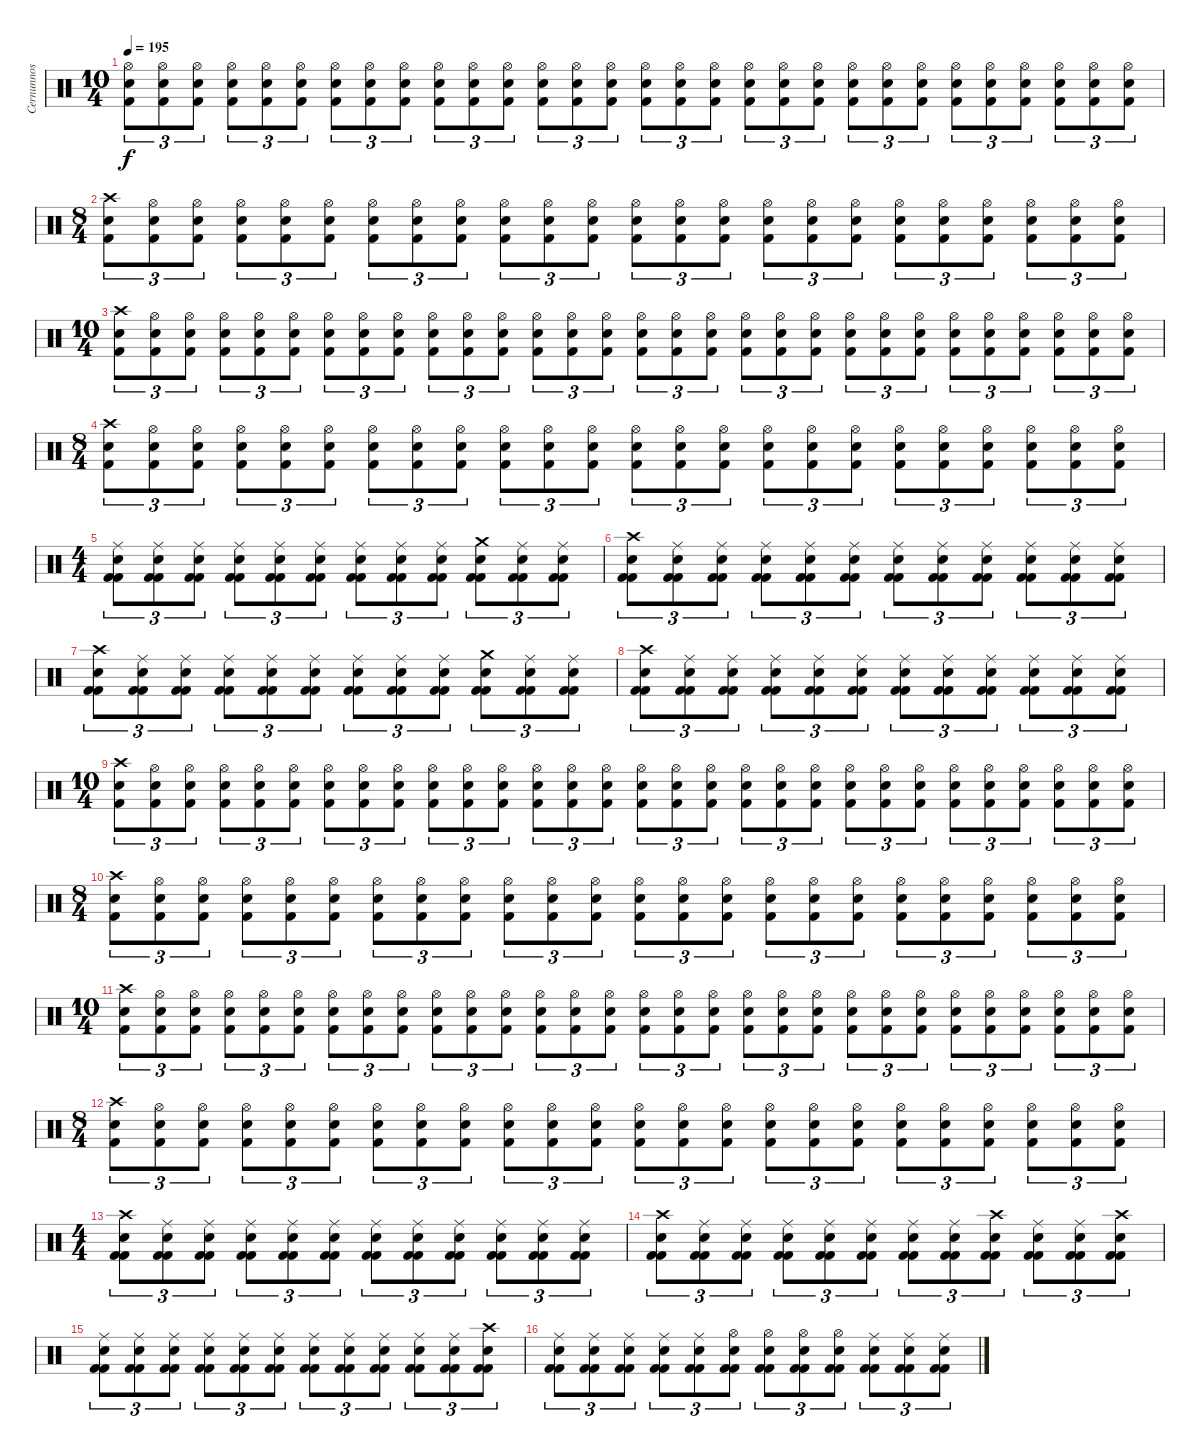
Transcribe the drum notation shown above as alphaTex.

\track ("Cernunnos (in memory)" "Cernunnos ") {instrument percussion}
\staff {score}
\articulation defaults
\ts (10 4)
\tempo 195
\clef neutral
\ks c
("Hi-Hat (open)" "Electric Snare (hit)" "Kick (hit) 2").8{tu (3 2) dy f} ("Hi-Hat (open)" "Electric Snare (hit)" "Kick (hit) 2").8{tu (3 2)} ("Hi-Hat (open)" "Electric Snare (hit)" "Kick (hit) 2").8{tu (3 2)} ("Hi-Hat (open)" "Electric Snare (hit)" "Kick (hit) 2").8{tu (3 2)} ("Hi-Hat (open)" "Electric Snare (hit)" "Kick (hit) 2").8{tu (3 2)} ("Hi-Hat (open)" "Electric Snare (hit)" "Kick (hit) 2").8{tu (3 2)} ("Hi-Hat (open)" "Electric Snare (hit)" "Kick (hit) 2").8{tu (3 2)} ("Hi-Hat (open)" "Electric Snare (hit)" "Kick (hit) 2").8{tu (3 2)} ("Hi-Hat (open)" "Electric Snare (hit)" "Kick (hit) 2").8{tu (3 2)} ("Hi-Hat (open)" "Electric Snare (hit)" "Kick (hit) 2").8{tu (3 2)} ("Hi-Hat (open)" "Electric Snare (hit)" "Kick (hit) 2").8{tu (3 2)} ("Hi-Hat (open)" "Electric Snare (hit)" "Kick (hit) 2").8{tu (3 2)} ("Hi-Hat (open)" "Electric Snare (hit)" "Kick (hit) 2").8{tu (3 2)} ("Hi-Hat (open)" "Electric Snare (hit)" "Kick (hit) 2").8{tu (3 2)} ("Hi-Hat (open)" "Electric Snare (hit)" "Kick (hit) 2").8{tu (3 2)} ("Hi-Hat (open)" "Electric Snare (hit)" "Kick (hit) 2").8{tu (3 2)} ("Hi-Hat (open)" "Electric Snare (hit)" "Kick (hit) 2").8{tu (3 2)} ("Hi-Hat (open)" "Electric Snare (hit)" "Kick (hit) 2").8{tu (3 2)} ("Hi-Hat (open)" "Electric Snare (hit)" "Kick (hit) 2").8{tu (3 2)} ("Hi-Hat (open)" "Electric Snare (hit)" "Kick (hit) 2").8{tu (3 2)} ("Hi-Hat (open)" "Electric Snare (hit)" "Kick (hit) 2").8{tu (3 2)} ("Hi-Hat (open)" "Electric Snare (hit)" "Kick (hit) 2").8{tu (3 2)} ("Hi-Hat (open)" "Electric Snare (hit)" "Kick (hit) 2").8{tu (3 2)} ("Hi-Hat (open)" "Electric Snare (hit)" "Kick (hit) 2").8{tu (3 2)} ("Hi-Hat (open)" "Electric Snare (hit)" "Kick (hit) 2").8{tu (3 2)} ("Hi-Hat (open)" "Electric Snare (hit)" "Kick (hit) 2").8{tu (3 2)} ("Hi-Hat (open)" "Electric Snare (hit)" "Kick (hit) 2").8{tu (3 2)} ("Hi-Hat (open)" "Electric Snare (hit)" "Kick (hit) 2").8{tu (3 2)} ("Hi-Hat (open)" "Electric Snare (hit)" "Kick (hit) 2").8{tu (3 2)} ("Hi-Hat (open)" "Electric Snare (hit)" "Kick (hit) 2").8{tu (3 2)} |
\ts (8 4)
("Crash high (hit)" "Electric Snare (hit)" "Kick (hit) 2").8{tu (3 2)} ("Hi-Hat (open)" "Electric Snare (hit)" "Kick (hit) 2").8{tu (3 2)} ("Hi-Hat (open)" "Electric Snare (hit)" "Kick (hit) 2").8{tu (3 2)} ("Hi-Hat (open)" "Electric Snare (hit)" "Kick (hit) 2").8{tu (3 2)} ("Hi-Hat (open)" "Electric Snare (hit)" "Kick (hit) 2").8{tu (3 2)} ("Hi-Hat (open)" "Electric Snare (hit)" "Kick (hit) 2").8{tu (3 2)} ("Hi-Hat (open)" "Electric Snare (hit)" "Kick (hit) 2").8{tu (3 2)} ("Hi-Hat (open)" "Electric Snare (hit)" "Kick (hit) 2").8{tu (3 2)} ("Hi-Hat (open)" "Electric Snare (hit)" "Kick (hit) 2").8{tu (3 2)} ("Hi-Hat (open)" "Electric Snare (hit)" "Kick (hit) 2").8{tu (3 2)} ("Hi-Hat (open)" "Electric Snare (hit)" "Kick (hit) 2").8{tu (3 2)} ("Hi-Hat (open)" "Electric Snare (hit)" "Kick (hit) 2").8{tu (3 2)} ("Hi-Hat (open)" "Electric Snare (hit)" "Kick (hit) 2").8{tu (3 2)} ("Hi-Hat (open)" "Electric Snare (hit)" "Kick (hit) 2").8{tu (3 2)} ("Hi-Hat (open)" "Electric Snare (hit)" "Kick (hit) 2").8{tu (3 2)} ("Hi-Hat (open)" "Electric Snare (hit)" "Kick (hit) 2").8{tu (3 2)} ("Hi-Hat (open)" "Electric Snare (hit)" "Kick (hit) 2").8{tu (3 2)} ("Hi-Hat (open)" "Electric Snare (hit)" "Kick (hit) 2").8{tu (3 2)} ("Hi-Hat (open)" "Electric Snare (hit)" "Kick (hit) 2").8{tu (3 2)} ("Hi-Hat (open)" "Electric Snare (hit)" "Kick (hit) 2").8{tu (3 2)} ("Hi-Hat (open)" "Electric Snare (hit)" "Kick (hit) 2").8{tu (3 2)} ("Hi-Hat (open)" "Electric Snare (hit)" "Kick (hit) 2").8{tu (3 2)} ("Hi-Hat (open)" "Electric Snare (hit)" "Kick (hit) 2").8{tu (3 2)} ("Hi-Hat (open)" "Electric Snare (hit)" "Kick (hit) 2").8{tu (3 2)} |
\ts (10 4)
("Crash high (hit)" "Electric Snare (hit)" "Kick (hit) 2").8{tu (3 2)} ("Hi-Hat (open)" "Electric Snare (hit)" "Kick (hit) 2").8{tu (3 2)} ("Hi-Hat (open)" "Electric Snare (hit)" "Kick (hit) 2").8{tu (3 2)} ("Hi-Hat (open)" "Electric Snare (hit)" "Kick (hit) 2").8{tu (3 2)} ("Hi-Hat (open)" "Electric Snare (hit)" "Kick (hit) 2").8{tu (3 2)} ("Hi-Hat (open)" "Electric Snare (hit)" "Kick (hit) 2").8{tu (3 2)} ("Hi-Hat (open)" "Electric Snare (hit)" "Kick (hit) 2").8{tu (3 2)} ("Hi-Hat (open)" "Electric Snare (hit)" "Kick (hit) 2").8{tu (3 2)} ("Hi-Hat (open)" "Electric Snare (hit)" "Kick (hit) 2").8{tu (3 2)} ("Hi-Hat (open)" "Electric Snare (hit)" "Kick (hit) 2").8{tu (3 2)} ("Hi-Hat (open)" "Electric Snare (hit)" "Kick (hit) 2").8{tu (3 2)} ("Hi-Hat (open)" "Electric Snare (hit)" "Kick (hit) 2").8{tu (3 2)} ("Hi-Hat (open)" "Electric Snare (hit)" "Kick (hit) 2").8{tu (3 2)} ("Hi-Hat (open)" "Electric Snare (hit)" "Kick (hit) 2").8{tu (3 2)} ("Hi-Hat (open)" "Electric Snare (hit)" "Kick (hit) 2").8{tu (3 2)} ("Hi-Hat (open)" "Electric Snare (hit)" "Kick (hit) 2").8{tu (3 2)} ("Hi-Hat (open)" "Electric Snare (hit)" "Kick (hit) 2").8{tu (3 2)} ("Hi-Hat (open)" "Electric Snare (hit)" "Kick (hit) 2").8{tu (3 2)} ("Hi-Hat (open)" "Electric Snare (hit)" "Kick (hit) 2").8{tu (3 2)} ("Hi-Hat (open)" "Electric Snare (hit)" "Kick (hit) 2").8{tu (3 2)} ("Hi-Hat (open)" "Electric Snare (hit)" "Kick (hit) 2").8{tu (3 2)} ("Hi-Hat (open)" "Electric Snare (hit)" "Kick (hit) 2").8{tu (3 2)} ("Hi-Hat (open)" "Electric Snare (hit)" "Kick (hit) 2").8{tu (3 2)} ("Hi-Hat (open)" "Electric Snare (hit)" "Kick (hit) 2").8{tu (3 2)} ("Hi-Hat (open)" "Electric Snare (hit)" "Kick (hit) 2").8{tu (3 2)} ("Hi-Hat (open)" "Electric Snare (hit)" "Kick (hit) 2").8{tu (3 2)} ("Hi-Hat (open)" "Electric Snare (hit)" "Kick (hit) 2").8{tu (3 2)} ("Hi-Hat (open)" "Electric Snare (hit)" "Kick (hit) 2").8{tu (3 2)} ("Hi-Hat (open)" "Electric Snare (hit)" "Kick (hit) 2").8{tu (3 2)} ("Hi-Hat (open)" "Electric Snare (hit)" "Kick (hit) 2").8{tu (3 2)} |
\ts (8 4)
("Crash high (hit)" "Electric Snare (hit)" "Kick (hit) 2").8{tu (3 2)} ("Hi-Hat (open)" "Electric Snare (hit)" "Kick (hit) 2").8{tu (3 2)} ("Hi-Hat (open)" "Electric Snare (hit)" "Kick (hit) 2").8{tu (3 2)} ("Hi-Hat (open)" "Electric Snare (hit)" "Kick (hit) 2").8{tu (3 2)} ("Hi-Hat (open)" "Electric Snare (hit)" "Kick (hit) 2").8{tu (3 2)} ("Hi-Hat (open)" "Electric Snare (hit)" "Kick (hit) 2").8{tu (3 2)} ("Hi-Hat (open)" "Electric Snare (hit)" "Kick (hit) 2").8{tu (3 2)} ("Hi-Hat (open)" "Electric Snare (hit)" "Kick (hit) 2").8{tu (3 2)} ("Hi-Hat (open)" "Electric Snare (hit)" "Kick (hit) 2").8{tu (3 2)} ("Hi-Hat (open)" "Electric Snare (hit)" "Kick (hit) 2").8{tu (3 2)} ("Hi-Hat (open)" "Electric Snare (hit)" "Kick (hit) 2").8{tu (3 2)} ("Hi-Hat (open)" "Electric Snare (hit)" "Kick (hit) 2").8{tu (3 2)} ("Hi-Hat (open)" "Electric Snare (hit)" "Kick (hit) 2").8{tu (3 2)} ("Hi-Hat (open)" "Electric Snare (hit)" "Kick (hit) 2").8{tu (3 2)} ("Hi-Hat (open)" "Electric Snare (hit)" "Kick (hit) 2").8{tu (3 2)} ("Hi-Hat (open)" "Electric Snare (hit)" "Kick (hit) 2").8{tu (3 2)} ("Hi-Hat (open)" "Electric Snare (hit)" "Kick (hit) 2").8{tu (3 2)} ("Hi-Hat (open)" "Electric Snare (hit)" "Kick (hit) 2").8{tu (3 2)} ("Hi-Hat (open)" "Electric Snare (hit)" "Kick (hit) 2").8{tu (3 2)} ("Hi-Hat (open)" "Electric Snare (hit)" "Kick (hit) 2").8{tu (3 2)} ("Hi-Hat (open)" "Electric Snare (hit)" "Kick (hit) 2").8{tu (3 2)} ("Hi-Hat (open)" "Electric Snare (hit)" "Kick (hit) 2").8{tu (3 2)} ("Hi-Hat (open)" "Electric Snare (hit)" "Kick (hit) 2").8{tu (3 2)} ("Hi-Hat (open)" "Electric Snare (hit)" "Kick (hit) 2").8{tu (3 2)} |
\ts (4 4)
("Ride (middle)" "Electric Snare (hit)" "Kick (hit) 2" "Kick (hit) 2").8{tu (3 2)} ("Ride (middle)" "Electric Snare (hit)" "Kick (hit) 2" "Kick (hit) 2").8{tu (3 2)} ("Ride (middle)" "Electric Snare (hit)" "Kick (hit) 2" "Kick (hit) 2").8{tu (3 2)} ("Ride (middle)" "Electric Snare (hit)" "Kick (hit) 2" "Kick (hit) 2").8{tu (3 2)} ("Ride (middle)" "Electric Snare (hit)" "Kick (hit) 2" "Kick (hit) 2").8{tu (3 2)} ("Ride (middle)" "Electric Snare (hit)" "Kick (hit) 2" "Kick (hit) 2").8{tu (3 2)} ("Ride (middle)" "Electric Snare (hit)" "Kick (hit) 2" "Kick (hit) 2").8{tu (3 2)} ("Ride (middle)" "Electric Snare (hit)" "Kick (hit) 2" "Kick (hit) 2").8{tu (3 2)} ("Ride (middle)" "Electric Snare (hit)" "Kick (hit) 2" "Kick (hit) 2").8{tu (3 2)} ("Crash medium (hit)" "Electric Snare (hit)" "Kick (hit) 2" "Kick (hit) 2").8{tu (3 2)} ("Ride (middle)" "Electric Snare (hit)" "Kick (hit) 2" "Kick (hit) 2").8{tu (3 2)} ("Ride (middle)" "Electric Snare (hit)" "Kick (hit) 2" "Kick (hit) 2").8{tu (3 2)} |
("Crash high (hit)" "Electric Snare (hit)" "Kick (hit) 2" "Kick (hit) 2").8{tu (3 2)} ("Ride (middle)" "Electric Snare (hit)" "Kick (hit) 2" "Kick (hit) 2").8{tu (3 2)} ("Ride (middle)" "Electric Snare (hit)" "Kick (hit) 2" "Kick (hit) 2").8{tu (3 2)} ("Ride (middle)" "Electric Snare (hit)" "Kick (hit) 2" "Kick (hit) 2").8{tu (3 2)} ("Ride (middle)" "Electric Snare (hit)" "Kick (hit) 2" "Kick (hit) 2").8{tu (3 2)} ("Ride (middle)" "Electric Snare (hit)" "Kick (hit) 2" "Kick (hit) 2").8{tu (3 2)} ("Ride (middle)" "Electric Snare (hit)" "Kick (hit) 2" "Kick (hit) 2").8{tu (3 2)} ("Ride (middle)" "Electric Snare (hit)" "Kick (hit) 2" "Kick (hit) 2").8{tu (3 2)} ("Ride (middle)" "Electric Snare (hit)" "Kick (hit) 2" "Kick (hit) 2").8{tu (3 2)} ("Ride (middle)" "Electric Snare (hit)" "Kick (hit) 2" "Kick (hit) 2").8{tu (3 2)} ("Ride (middle)" "Electric Snare (hit)" "Kick (hit) 2" "Kick (hit) 2").8{tu (3 2)} ("Ride (middle)" "Electric Snare (hit)" "Kick (hit) 2" "Kick (hit) 2").8{tu (3 2)} |
("Crash high (hit)" "Electric Snare (hit)" "Kick (hit) 2" "Kick (hit) 2").8{tu (3 2)} ("Ride (middle)" "Electric Snare (hit)" "Kick (hit) 2" "Kick (hit) 2").8{tu (3 2)} ("Ride (middle)" "Electric Snare (hit)" "Kick (hit) 2" "Kick (hit) 2").8{tu (3 2)} ("Ride (middle)" "Electric Snare (hit)" "Kick (hit) 2" "Kick (hit) 2").8{tu (3 2)} ("Ride (middle)" "Electric Snare (hit)" "Kick (hit) 2" "Kick (hit) 2").8{tu (3 2)} ("Ride (middle)" "Electric Snare (hit)" "Kick (hit) 2" "Kick (hit) 2").8{tu (3 2)} ("Ride (middle)" "Electric Snare (hit)" "Kick (hit) 2" "Kick (hit) 2").8{tu (3 2)} ("Ride (middle)" "Electric Snare (hit)" "Kick (hit) 2" "Kick (hit) 2").8{tu (3 2)} ("Ride (middle)" "Electric Snare (hit)" "Kick (hit) 2" "Kick (hit) 2").8{tu (3 2)} ("Crash medium (hit)" "Electric Snare (hit)" "Kick (hit) 2" "Kick (hit) 2").8{tu (3 2)} ("Ride (middle)" "Electric Snare (hit)" "Kick (hit) 2" "Kick (hit) 2").8{tu (3 2)} ("Ride (middle)" "Electric Snare (hit)" "Kick (hit) 2" "Kick (hit) 2").8{tu (3 2)} |
("Crash high (hit)" "Electric Snare (hit)" "Kick (hit) 2" "Kick (hit) 2").8{tu (3 2)} ("Ride (middle)" "Electric Snare (hit)" "Kick (hit) 2" "Kick (hit) 2").8{tu (3 2)} ("Ride (middle)" "Electric Snare (hit)" "Kick (hit) 2" "Kick (hit) 2").8{tu (3 2)} ("Ride (middle)" "Electric Snare (hit)" "Kick (hit) 2" "Kick (hit) 2").8{tu (3 2)} ("Ride (middle)" "Electric Snare (hit)" "Kick (hit) 2" "Kick (hit) 2").8{tu (3 2)} ("Ride (middle)" "Electric Snare (hit)" "Kick (hit) 2" "Kick (hit) 2").8{tu (3 2)} ("Ride (middle)" "Electric Snare (hit)" "Kick (hit) 2" "Kick (hit) 2").8{tu (3 2)} ("Ride (middle)" "Electric Snare (hit)" "Kick (hit) 2" "Kick (hit) 2").8{tu (3 2)} ("Ride (middle)" "Electric Snare (hit)" "Kick (hit) 2" "Kick (hit) 2").8{tu (3 2)} ("Ride (middle)" "Electric Snare (hit)" "Kick (hit) 2" "Kick (hit) 2").8{tu (3 2)} ("Ride (middle)" "Electric Snare (hit)" "Kick (hit) 2" "Kick (hit) 2").8{tu (3 2)} ("Ride (middle)" "Electric Snare (hit)" "Kick (hit) 2" "Kick (hit) 2").8{tu (3 2)} |
\ts (10 4)
("Crash high (hit)" "Electric Snare (hit)" "Kick (hit) 2").8{tu (3 2)} ("Hi-Hat (open)" "Electric Snare (hit)" "Kick (hit) 2").8{tu (3 2)} ("Hi-Hat (open)" "Electric Snare (hit)" "Kick (hit) 2").8{tu (3 2)} ("Hi-Hat (open)" "Electric Snare (hit)" "Kick (hit) 2").8{tu (3 2)} ("Hi-Hat (open)" "Electric Snare (hit)" "Kick (hit) 2").8{tu (3 2)} ("Hi-Hat (open)" "Electric Snare (hit)" "Kick (hit) 2").8{tu (3 2)} ("Hi-Hat (open)" "Electric Snare (hit)" "Kick (hit) 2").8{tu (3 2)} ("Hi-Hat (open)" "Electric Snare (hit)" "Kick (hit) 2").8{tu (3 2)} ("Hi-Hat (open)" "Electric Snare (hit)" "Kick (hit) 2").8{tu (3 2)} ("Hi-Hat (open)" "Electric Snare (hit)" "Kick (hit) 2").8{tu (3 2)} ("Hi-Hat (open)" "Electric Snare (hit)" "Kick (hit) 2").8{tu (3 2)} ("Hi-Hat (open)" "Electric Snare (hit)" "Kick (hit) 2").8{tu (3 2)} ("Hi-Hat (open)" "Electric Snare (hit)" "Kick (hit) 2").8{tu (3 2)} ("Hi-Hat (open)" "Electric Snare (hit)" "Kick (hit) 2").8{tu (3 2)} ("Hi-Hat (open)" "Electric Snare (hit)" "Kick (hit) 2").8{tu (3 2)} ("Hi-Hat (open)" "Electric Snare (hit)" "Kick (hit) 2").8{tu (3 2)} ("Hi-Hat (open)" "Electric Snare (hit)" "Kick (hit) 2").8{tu (3 2)} ("Hi-Hat (open)" "Electric Snare (hit)" "Kick (hit) 2").8{tu (3 2)} ("Hi-Hat (open)" "Electric Snare (hit)" "Kick (hit) 2").8{tu (3 2)} ("Hi-Hat (open)" "Electric Snare (hit)" "Kick (hit) 2").8{tu (3 2)} ("Hi-Hat (open)" "Electric Snare (hit)" "Kick (hit) 2").8{tu (3 2)} ("Hi-Hat (open)" "Electric Snare (hit)" "Kick (hit) 2").8{tu (3 2)} ("Hi-Hat (open)" "Electric Snare (hit)" "Kick (hit) 2").8{tu (3 2)} ("Hi-Hat (open)" "Electric Snare (hit)" "Kick (hit) 2").8{tu (3 2)} ("Hi-Hat (open)" "Electric Snare (hit)" "Kick (hit) 2").8{tu (3 2)} ("Hi-Hat (open)" "Electric Snare (hit)" "Kick (hit) 2").8{tu (3 2)} ("Hi-Hat (open)" "Electric Snare (hit)" "Kick (hit) 2").8{tu (3 2)} ("Hi-Hat (open)" "Electric Snare (hit)" "Kick (hit) 2").8{tu (3 2)} ("Hi-Hat (open)" "Electric Snare (hit)" "Kick (hit) 2").8{tu (3 2)} ("Hi-Hat (open)" "Electric Snare (hit)" "Kick (hit) 2").8{tu (3 2)} |
\ts (8 4)
("Crash high (hit)" "Electric Snare (hit)" "Kick (hit) 2").8{tu (3 2)} ("Hi-Hat (open)" "Electric Snare (hit)" "Kick (hit) 2").8{tu (3 2)} ("Hi-Hat (open)" "Electric Snare (hit)" "Kick (hit) 2").8{tu (3 2)} ("Hi-Hat (open)" "Electric Snare (hit)" "Kick (hit) 2").8{tu (3 2)} ("Hi-Hat (open)" "Electric Snare (hit)" "Kick (hit) 2").8{tu (3 2)} ("Hi-Hat (open)" "Electric Snare (hit)" "Kick (hit) 2").8{tu (3 2)} ("Hi-Hat (open)" "Electric Snare (hit)" "Kick (hit) 2").8{tu (3 2)} ("Hi-Hat (open)" "Electric Snare (hit)" "Kick (hit) 2").8{tu (3 2)} ("Hi-Hat (open)" "Electric Snare (hit)" "Kick (hit) 2").8{tu (3 2)} ("Hi-Hat (open)" "Electric Snare (hit)" "Kick (hit) 2").8{tu (3 2)} ("Hi-Hat (open)" "Electric Snare (hit)" "Kick (hit) 2").8{tu (3 2)} ("Hi-Hat (open)" "Electric Snare (hit)" "Kick (hit) 2").8{tu (3 2)} ("Hi-Hat (open)" "Electric Snare (hit)" "Kick (hit) 2").8{tu (3 2)} ("Hi-Hat (open)" "Electric Snare (hit)" "Kick (hit) 2").8{tu (3 2)} ("Hi-Hat (open)" "Electric Snare (hit)" "Kick (hit) 2").8{tu (3 2)} ("Hi-Hat (open)" "Electric Snare (hit)" "Kick (hit) 2").8{tu (3 2)} ("Hi-Hat (open)" "Electric Snare (hit)" "Kick (hit) 2").8{tu (3 2)} ("Hi-Hat (open)" "Electric Snare (hit)" "Kick (hit) 2").8{tu (3 2)} ("Hi-Hat (open)" "Electric Snare (hit)" "Kick (hit) 2").8{tu (3 2)} ("Hi-Hat (open)" "Electric Snare (hit)" "Kick (hit) 2").8{tu (3 2)} ("Hi-Hat (open)" "Electric Snare (hit)" "Kick (hit) 2").8{tu (3 2)} ("Hi-Hat (open)" "Electric Snare (hit)" "Kick (hit) 2").8{tu (3 2)} ("Hi-Hat (open)" "Electric Snare (hit)" "Kick (hit) 2").8{tu (3 2)} ("Hi-Hat (open)" "Electric Snare (hit)" "Kick (hit) 2").8{tu (3 2)} |
\ts (10 4)
("Crash high (hit)" "Electric Snare (hit)" "Kick (hit) 2").8{tu (3 2)} ("Hi-Hat (open)" "Electric Snare (hit)" "Kick (hit) 2").8{tu (3 2)} ("Hi-Hat (open)" "Electric Snare (hit)" "Kick (hit) 2").8{tu (3 2)} ("Hi-Hat (open)" "Electric Snare (hit)" "Kick (hit) 2").8{tu (3 2)} ("Hi-Hat (open)" "Electric Snare (hit)" "Kick (hit) 2").8{tu (3 2)} ("Hi-Hat (open)" "Electric Snare (hit)" "Kick (hit) 2").8{tu (3 2)} ("Hi-Hat (open)" "Electric Snare (hit)" "Kick (hit) 2").8{tu (3 2)} ("Hi-Hat (open)" "Electric Snare (hit)" "Kick (hit) 2").8{tu (3 2)} ("Hi-Hat (open)" "Electric Snare (hit)" "Kick (hit) 2").8{tu (3 2)} ("Hi-Hat (open)" "Electric Snare (hit)" "Kick (hit) 2").8{tu (3 2)} ("Hi-Hat (open)" "Electric Snare (hit)" "Kick (hit) 2").8{tu (3 2)} ("Hi-Hat (open)" "Electric Snare (hit)" "Kick (hit) 2").8{tu (3 2)} ("Hi-Hat (open)" "Electric Snare (hit)" "Kick (hit) 2").8{tu (3 2)} ("Hi-Hat (open)" "Electric Snare (hit)" "Kick (hit) 2").8{tu (3 2)} ("Hi-Hat (open)" "Electric Snare (hit)" "Kick (hit) 2").8{tu (3 2)} ("Hi-Hat (open)" "Electric Snare (hit)" "Kick (hit) 2").8{tu (3 2)} ("Hi-Hat (open)" "Electric Snare (hit)" "Kick (hit) 2").8{tu (3 2)} ("Hi-Hat (open)" "Electric Snare (hit)" "Kick (hit) 2").8{tu (3 2)} ("Hi-Hat (open)" "Electric Snare (hit)" "Kick (hit) 2").8{tu (3 2)} ("Hi-Hat (open)" "Electric Snare (hit)" "Kick (hit) 2").8{tu (3 2)} ("Hi-Hat (open)" "Electric Snare (hit)" "Kick (hit) 2").8{tu (3 2)} ("Hi-Hat (open)" "Electric Snare (hit)" "Kick (hit) 2").8{tu (3 2)} ("Hi-Hat (open)" "Electric Snare (hit)" "Kick (hit) 2").8{tu (3 2)} ("Hi-Hat (open)" "Electric Snare (hit)" "Kick (hit) 2").8{tu (3 2)} ("Hi-Hat (open)" "Electric Snare (hit)" "Kick (hit) 2").8{tu (3 2)} ("Hi-Hat (open)" "Electric Snare (hit)" "Kick (hit) 2").8{tu (3 2)} ("Hi-Hat (open)" "Electric Snare (hit)" "Kick (hit) 2").8{tu (3 2)} ("Hi-Hat (open)" "Electric Snare (hit)" "Kick (hit) 2").8{tu (3 2)} ("Hi-Hat (open)" "Electric Snare (hit)" "Kick (hit) 2").8{tu (3 2)} ("Hi-Hat (open)" "Electric Snare (hit)" "Kick (hit) 2").8{tu (3 2)} |
\ts (8 4)
("Crash high (hit)" "Electric Snare (hit)" "Kick (hit) 2").8{tu (3 2)} ("Hi-Hat (open)" "Electric Snare (hit)" "Kick (hit) 2").8{tu (3 2)} ("Hi-Hat (open)" "Electric Snare (hit)" "Kick (hit) 2").8{tu (3 2)} ("Hi-Hat (open)" "Electric Snare (hit)" "Kick (hit) 2").8{tu (3 2)} ("Hi-Hat (open)" "Electric Snare (hit)" "Kick (hit) 2").8{tu (3 2)} ("Hi-Hat (open)" "Electric Snare (hit)" "Kick (hit) 2").8{tu (3 2)} ("Hi-Hat (open)" "Electric Snare (hit)" "Kick (hit) 2").8{tu (3 2)} ("Hi-Hat (open)" "Electric Snare (hit)" "Kick (hit) 2").8{tu (3 2)} ("Hi-Hat (open)" "Electric Snare (hit)" "Kick (hit) 2").8{tu (3 2)} ("Hi-Hat (open)" "Electric Snare (hit)" "Kick (hit) 2").8{tu (3 2)} ("Hi-Hat (open)" "Electric Snare (hit)" "Kick (hit) 2").8{tu (3 2)} ("Hi-Hat (open)" "Electric Snare (hit)" "Kick (hit) 2").8{tu (3 2)} ("Hi-Hat (open)" "Electric Snare (hit)" "Kick (hit) 2").8{tu (3 2)} ("Hi-Hat (open)" "Electric Snare (hit)" "Kick (hit) 2").8{tu (3 2)} ("Hi-Hat (open)" "Electric Snare (hit)" "Kick (hit) 2").8{tu (3 2)} ("Hi-Hat (open)" "Electric Snare (hit)" "Kick (hit) 2").8{tu (3 2)} ("Hi-Hat (open)" "Electric Snare (hit)" "Kick (hit) 2").8{tu (3 2)} ("Hi-Hat (open)" "Electric Snare (hit)" "Kick (hit) 2").8{tu (3 2)} ("Hi-Hat (open)" "Electric Snare (hit)" "Kick (hit) 2").8{tu (3 2)} ("Hi-Hat (open)" "Electric Snare (hit)" "Kick (hit) 2").8{tu (3 2)} ("Hi-Hat (open)" "Electric Snare (hit)" "Kick (hit) 2").8{tu (3 2)} ("Hi-Hat (open)" "Electric Snare (hit)" "Kick (hit) 2").8{tu (3 2)} ("Hi-Hat (open)" "Electric Snare (hit)" "Kick (hit) 2").8{tu (3 2)} ("Hi-Hat (open)" "Electric Snare (hit)" "Kick (hit) 2").8{tu (3 2)} |
\ts (4 4)
("Crash high (hit)" "Electric Snare (hit)" "Kick (hit) 2" "Kick (hit) 2").8{tu (3 2)} ("Ride (middle)" "Electric Snare (hit)" "Kick (hit) 2" "Kick (hit) 2").8{tu (3 2)} ("Ride (middle)" "Electric Snare (hit)" "Kick (hit) 2" "Kick (hit) 2").8{tu (3 2)} ("Ride (middle)" "Electric Snare (hit)" "Kick (hit) 2" "Kick (hit) 2").8{tu (3 2)} ("Ride (middle)" "Electric Snare (hit)" "Kick (hit) 2" "Kick (hit) 2").8{tu (3 2)} ("Ride (middle)" "Electric Snare (hit)" "Kick (hit) 2" "Kick (hit) 2").8{tu (3 2)} ("Ride (middle)" "Electric Snare (hit)" "Kick (hit) 2" "Kick (hit) 2").8{tu (3 2)} ("Ride (middle)" "Electric Snare (hit)" "Kick (hit) 2" "Kick (hit) 2").8{tu (3 2)} ("Ride (middle)" "Electric Snare (hit)" "Kick (hit) 2" "Kick (hit) 2").8{tu (3 2)} ("Ride (middle)" "Electric Snare (hit)" "Kick (hit) 2" "Kick (hit) 2").8{tu (3 2)} ("Ride (middle)" "Electric Snare (hit)" "Kick (hit) 2" "Kick (hit) 2").8{tu (3 2)} ("Ride (middle)" "Electric Snare (hit)" "Kick (hit) 2" "Kick (hit) 2").8{tu (3 2)} |
("Crash high (hit)" "Electric Snare (hit)" "Kick (hit) 2" "Kick (hit) 2").8{tu (3 2)} ("Ride (middle)" "Electric Snare (hit)" "Kick (hit) 2" "Kick (hit) 2").8{tu (3 2)} ("Ride (middle)" "Electric Snare (hit)" "Kick (hit) 2" "Kick (hit) 2").8{tu (3 2)} ("Ride (middle)" "Electric Snare (hit)" "Kick (hit) 2" "Kick (hit) 2").8{tu (3 2)} ("Ride (middle)" "Electric Snare (hit)" "Kick (hit) 2" "Kick (hit) 2").8{tu (3 2)} ("Ride (middle)" "Electric Snare (hit)" "Kick (hit) 2" "Kick (hit) 2").8{tu (3 2)} ("Ride (middle)" "Electric Snare (hit)" "Kick (hit) 2" "Kick (hit) 2").8{tu (3 2)} ("Ride (middle)" "Electric Snare (hit)" "Kick (hit) 2" "Kick (hit) 2").8{tu (3 2)} ("Crash high (hit)" "Electric Snare (hit)" "Kick (hit) 2" "Kick (hit) 2").8{tu (3 2)} ("Ride (middle)" "Electric Snare (hit)" "Kick (hit) 2" "Kick (hit) 2").8{tu (3 2)} ("Ride (middle)" "Electric Snare (hit)" "Kick (hit) 2" "Kick (hit) 2").8{tu (3 2)} ("Crash high (hit)" "Electric Snare (hit)" "Kick (hit) 2" "Kick (hit) 2").8{tu (3 2)} |
("Ride (middle)" "Electric Snare (hit)" "Kick (hit) 2" "Kick (hit) 2").8{tu (3 2)} ("Ride (middle)" "Electric Snare (hit)" "Kick (hit) 2" "Kick (hit) 2").8{tu (3 2)} ("Ride (middle)" "Electric Snare (hit)" "Kick (hit) 2" "Kick (hit) 2").8{tu (3 2)} ("Ride (middle)" "Electric Snare (hit)" "Kick (hit) 2" "Kick (hit) 2").8{tu (3 2)} ("Ride (middle)" "Electric Snare (hit)" "Kick (hit) 2" "Kick (hit) 2").8{tu (3 2)} ("Ride (middle)" "Electric Snare (hit)" "Kick (hit) 2" "Kick (hit) 2").8{tu (3 2)} ("Ride (middle)" "Electric Snare (hit)" "Kick (hit) 2" "Kick (hit) 2").8{tu (3 2)} ("Ride (middle)" "Electric Snare (hit)" "Kick (hit) 2" "Kick (hit) 2").8{tu (3 2)} ("Ride (middle)" "Electric Snare (hit)" "Kick (hit) 2" "Kick (hit) 2").8{tu (3 2)} ("Ride (middle)" "Electric Snare (hit)" "Kick (hit) 2" "Kick (hit) 2").8{tu (3 2)} ("Ride (middle)" "Electric Snare (hit)" "Kick (hit) 2" "Kick (hit) 2").8{tu (3 2)} ("Crash high (hit)" "Electric Snare (hit)" "Kick (hit) 2" "Kick (hit) 2").8{tu (3 2)} |
("Ride (middle)" "Electric Snare (hit)" "Kick (hit) 2" "Kick (hit) 2").8{tu (3 2)} ("Ride (middle)" "Electric Snare (hit)" "Kick (hit) 2" "Kick (hit) 2").8{tu (3 2)} ("Ride (middle)" "Electric Snare (hit)" "Kick (hit) 2" "Kick (hit) 2").8{tu (3 2)} ("Ride (middle)" "Electric Snare (hit)" "Kick (hit) 2" "Kick (hit) 2").8{tu (3 2)} ("Ride (middle)" "Electric Snare (hit)" "Kick (hit) 2" "Kick (hit) 2").8{tu (3 2)} ("Hi-Hat (open)" "Electric Snare (hit)" "Kick (hit) 2" "Kick (hit) 2").8{tu (3 2)} ("Hi-Hat (open)" "Electric Snare (hit)" "Kick (hit) 2" "Kick (hit) 2").8{tu (3 2)} ("Hi-Hat (open)" "Electric Snare (hit)" "Kick (hit) 2" "Kick (hit) 2").8{tu (3 2)} ("Hi-Hat (open)" "Electric Snare (hit)" "Kick (hit) 2" "Kick (hit) 2").8{tu (3 2)} ("Ride (middle)" "Electric Snare (hit)" "Kick (hit) 2" "Kick (hit) 2").8{tu (3 2)} ("Ride (middle)" "Electric Snare (hit)" "Kick (hit) 2" "Kick (hit) 2").8{tu (3 2)} ("Ride (middle)" "Electric Snare (hit)" "Kick (hit) 2" "Kick (hit) 2").8{tu (3 2)}
